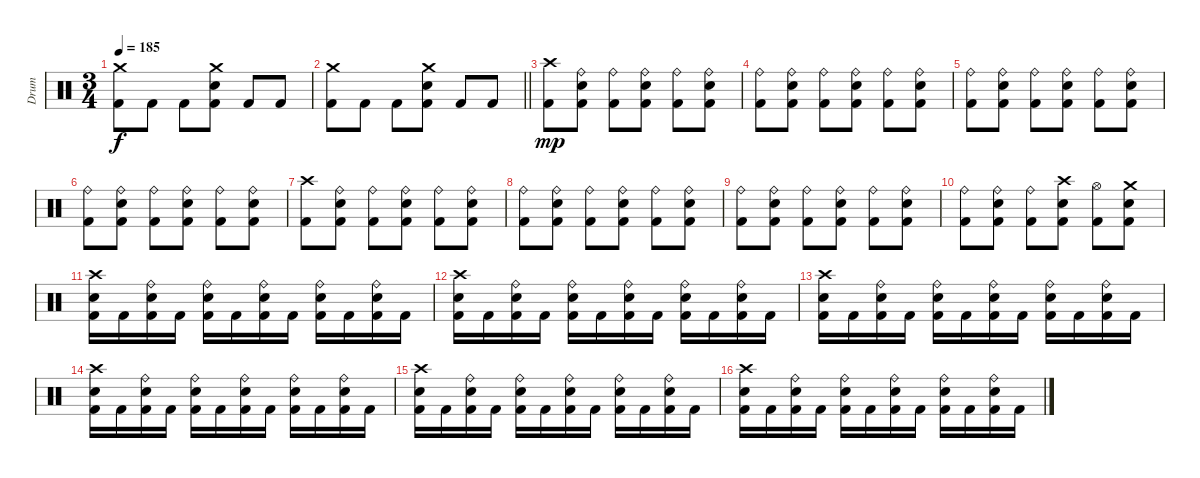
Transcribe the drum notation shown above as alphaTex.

\track ("Drum" "Drum") {instrument percussion}
\staff {score}
\articulation defaults
\ts (3 4)
\tempo 185
\clef neutral
\ks c
("Crash medium (hit)" "Kick (hit) 2").8{dy f} "Kick (hit) 2".8 "Kick (hit) 2".8 ("Crash medium (hit)" "Electric Snare (hit)" "Kick (hit) 2").8 "Kick (hit) 2".8 "Kick (hit) 2".8 |
\barLineRight lightlight
("Crash medium (hit)" "Kick (hit) 2").8 "Kick (hit) 2".8 "Kick (hit) 2".8 ("Crash medium (hit)" "Electric Snare (hit)" "Kick (hit) 2").8 "Kick (hit) 2".8 "Kick (hit) 2".8 |
("Crash high (hit)" "Kick (hit) 2").8{dy mp} ("Ride (bell)" "Electric Snare (hit)" "Kick (hit) 2").8 ("Ride (bell)" "Kick (hit) 2").8 ("Ride (bell)" "Electric Snare (hit)" "Kick (hit) 2").8 ("Ride (bell)" "Kick (hit) 2").8 ("Ride (bell)" "Electric Snare (hit)" "Kick (hit) 2").8 |
("Ride (bell)" "Kick (hit) 2").8 ("Ride (bell)" "Electric Snare (hit)" "Kick (hit) 2").8 ("Ride (bell)" "Kick (hit) 2").8 ("Ride (bell)" "Electric Snare (hit)" "Kick (hit) 2").8 ("Ride (bell)" "Kick (hit) 2").8 ("Ride (bell)" "Electric Snare (hit)" "Kick (hit) 2").8 |
("Ride (bell)" "Kick (hit) 2").8 ("Ride (bell)" "Electric Snare (hit)" "Kick (hit) 2").8 ("Ride (bell)" "Kick (hit) 2").8 ("Ride (bell)" "Electric Snare (hit)" "Kick (hit) 2").8 ("Ride (bell)" "Kick (hit) 2").8 ("Ride (bell)" "Electric Snare (hit)" "Kick (hit) 2").8 |
("Ride (bell)" "Kick (hit) 2").8 ("Ride (bell)" "Electric Snare (hit)" "Kick (hit) 2").8 ("Ride (bell)" "Kick (hit) 2").8 ("Ride (bell)" "Electric Snare (hit)" "Kick (hit) 2").8 ("Ride (bell)" "Kick (hit) 2").8 ("Ride (bell)" "Electric Snare (hit)" "Kick (hit) 2").8 |
("Crash high (hit)" "Kick (hit) 2").8 ("Ride (bell)" "Electric Snare (hit)" "Kick (hit) 2").8 ("Ride (bell)" "Kick (hit) 2").8 ("Ride (bell)" "Electric Snare (hit)" "Kick (hit) 2").8 ("Ride (bell)" "Kick (hit) 2").8 ("Ride (bell)" "Electric Snare (hit)" "Kick (hit) 2").8 |
("Ride (bell)" "Kick (hit) 2").8 ("Ride (bell)" "Electric Snare (hit)" "Kick (hit) 2").8 ("Ride (bell)" "Kick (hit) 2").8 ("Ride (bell)" "Electric Snare (hit)" "Kick (hit) 2").8 ("Ride (bell)" "Kick (hit) 2").8 ("Ride (bell)" "Electric Snare (hit)" "Kick (hit) 2").8 |
("Ride (bell)" "Kick (hit) 2").8 ("Ride (bell)" "Electric Snare (hit)" "Kick (hit) 2").8 ("Ride (bell)" "Kick (hit) 2").8 ("Ride (bell)" "Electric Snare (hit)" "Kick (hit) 2").8 ("Ride (bell)" "Kick (hit) 2").8 ("Ride (bell)" "Electric Snare (hit)" "Kick (hit) 2").8 |
("Ride (bell)" "Kick (hit) 2").8 ("Ride (bell)" "Electric Snare (hit)" "Kick (hit) 2").8 ("Ride (bell)" "Kick (hit) 2").8 ("Crash high (hit)" "Electric Snare (hit)" "Kick (hit) 2").8 ("Hi-Hat (open)" "Kick (hit) 2").8 ("Crash medium (hit)" "Electric Snare (hit)" "Kick (hit) 2").8 |
("Crash high (hit)" "Electric Snare (hit)" "Kick (hit) 2").16 "Kick (hit) 2".16 ("Ride (bell)" "Electric Snare (hit)" "Kick (hit) 2").16 "Kick (hit) 2".16 ("Ride (bell)" "Electric Snare (hit)" "Kick (hit) 2").16 "Kick (hit) 2".16 ("Ride (bell)" "Electric Snare (hit)" "Kick (hit) 2").16 "Kick (hit) 2".16 ("Ride (bell)" "Electric Snare (hit)" "Kick (hit) 2").16 "Kick (hit) 2".16 ("Ride (bell)" "Electric Snare (hit)" "Kick (hit) 2").16 "Kick (hit) 2".16 |
("Crash high (hit)" "Electric Snare (hit)" "Kick (hit) 2").16 "Kick (hit) 2".16 ("Ride (bell)" "Electric Snare (hit)" "Kick (hit) 2").16 "Kick (hit) 2".16 ("Ride (bell)" "Electric Snare (hit)" "Kick (hit) 2").16 "Kick (hit) 2".16 ("Ride (bell)" "Electric Snare (hit)" "Kick (hit) 2").16 "Kick (hit) 2".16 ("Ride (bell)" "Electric Snare (hit)" "Kick (hit) 2").16 "Kick (hit) 2".16 ("Ride (bell)" "Electric Snare (hit)" "Kick (hit) 2").16 "Kick (hit) 2".16 |
("Crash high (hit)" "Electric Snare (hit)" "Kick (hit) 2").16 "Kick (hit) 2".16 ("Ride (bell)" "Electric Snare (hit)" "Kick (hit) 2").16 "Kick (hit) 2".16 ("Ride (bell)" "Electric Snare (hit)" "Kick (hit) 2").16 "Kick (hit) 2".16 ("Ride (bell)" "Electric Snare (hit)" "Kick (hit) 2").16 "Kick (hit) 2".16 ("Ride (bell)" "Electric Snare (hit)" "Kick (hit) 2").16 "Kick (hit) 2".16 ("Ride (bell)" "Electric Snare (hit)" "Kick (hit) 2").16 "Kick (hit) 2".16 |
("Crash high (hit)" "Electric Snare (hit)" "Kick (hit) 2").16 "Kick (hit) 2".16 ("Ride (bell)" "Electric Snare (hit)" "Kick (hit) 2").16 "Kick (hit) 2".16 ("Ride (bell)" "Electric Snare (hit)" "Kick (hit) 2").16 "Kick (hit) 2".16 ("Ride (bell)" "Electric Snare (hit)" "Kick (hit) 2").16 "Kick (hit) 2".16 ("Ride (bell)" "Electric Snare (hit)" "Kick (hit) 2").16 "Kick (hit) 2".16 ("Ride (bell)" "Electric Snare (hit)" "Kick (hit) 2").16 "Kick (hit) 2".16 |
("Crash high (hit)" "Electric Snare (hit)" "Kick (hit) 2").16 "Kick (hit) 2".16 ("Ride (bell)" "Electric Snare (hit)" "Kick (hit) 2").16 "Kick (hit) 2".16 ("Ride (bell)" "Electric Snare (hit)" "Kick (hit) 2").16 "Kick (hit) 2".16 ("Ride (bell)" "Electric Snare (hit)" "Kick (hit) 2").16 "Kick (hit) 2".16 ("Ride (bell)" "Electric Snare (hit)" "Kick (hit) 2").16 "Kick (hit) 2".16 ("Ride (bell)" "Electric Snare (hit)" "Kick (hit) 2").16 "Kick (hit) 2".16 |
("Crash high (hit)" "Electric Snare (hit)" "Kick (hit) 2").16 "Kick (hit) 2".16 ("Ride (bell)" "Electric Snare (hit)" "Kick (hit) 2").16 "Kick (hit) 2".16 ("Ride (bell)" "Electric Snare (hit)" "Kick (hit) 2").16 "Kick (hit) 2".16 ("Ride (bell)" "Electric Snare (hit)" "Kick (hit) 2").16 "Kick (hit) 2".16 ("Ride (bell)" "Electric Snare (hit)" "Kick (hit) 2").16 "Kick (hit) 2".16 ("Ride (bell)" "Electric Snare (hit)" "Kick (hit) 2").16 "Kick (hit) 2".16
